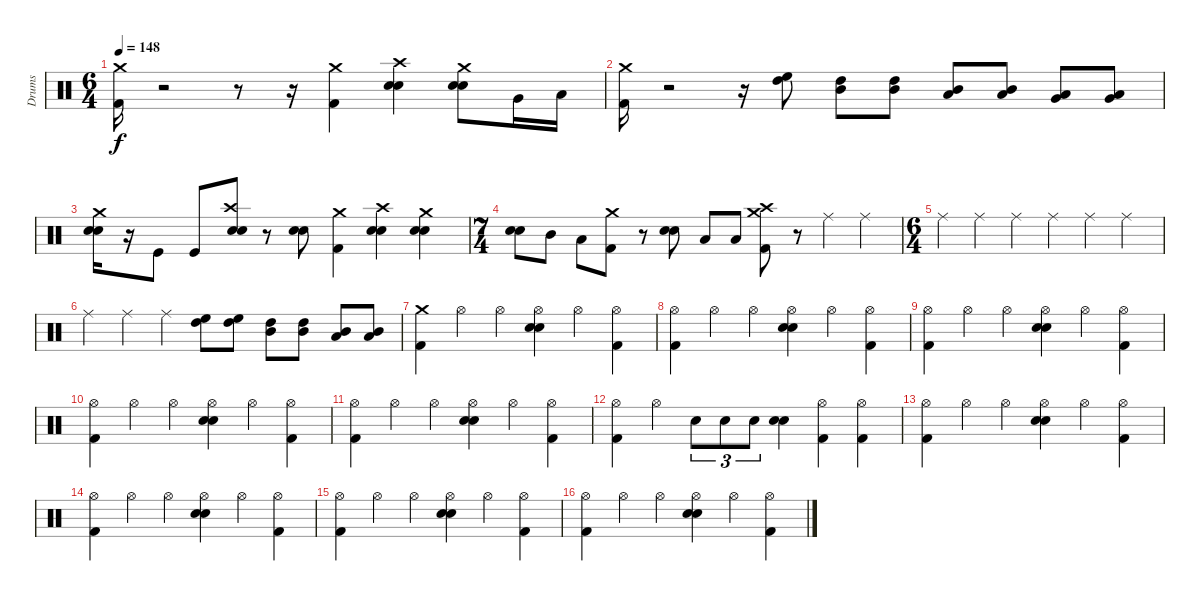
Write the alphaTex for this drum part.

\track ("Drums" "Drums") {instrument percussion}
\staff {score}
\articulation defaults
\ts (6 4)
\tempo 148
\clef neutral
\ks c
("Crash medium (hit)" "Kick (hit) 2").16{dy f} r.2 r.8 r.16 ("Crash medium (hit)" "Kick (hit) 2").4 ("Electric Snare (hit)" "Crash high (hit)" "Snare (hit) 2").4 ("Electric Snare (hit)" "Crash medium (hit)" "Snare (hit) 2").8 "Very Low Tom (hit)".16 "Low Floor Tom (hit)".16 |
("Crash medium (hit)" "Kick (hit) 2").16 r.2 r.16 ("High Tom (hit)" "High Floor Tom (hit)").8 ("Mid Tom (hit)" "High Tom (hit)").8 ("High Tom (hit)" "Mid Tom (hit)").8 ("Mid Tom (hit)" "Low Tom (hit)").8 ("Mid Tom (hit)" "Low Tom (hit)").8 ("Low Tom (hit)" "Very Low Tom (hit)").8 ("Very Low Tom (hit)" "Low Floor Tom (hit)").8 |
("Snare (hit) 2" "Crash medium (hit)" "Electric Snare (hit)").16 r.16 "Kick (hit)".8 "Kick (hit)".8 ("Crash high (hit)" "Electric Snare (hit)" "Snare (hit) 2").8 r.8 ("Electric Snare (hit)" "Snare (hit) 2").8 ("Crash medium (hit)" "Kick (hit) 2").4 ("Electric Snare (hit)" "Crash high (hit)" "Snare (hit) 2").4 ("Electric Snare (hit)" "Crash medium (hit)" "Snare (hit) 2").4 |
\ts (7 4)
("Snare (hit) 2" "Electric Snare (hit)").8 "Mid Tom (hit)".8 "Low Tom (hit)".8 ("Crash medium (hit)" "Kick (hit) 2").8 r.8 ("Snare (hit) 2" "Electric Snare (hit)").8 "Low Tom (hit)".8 "Low Floor Tom (hit)".8 ("Crash high (hit)" "Crash medium (hit)" "Kick (hit) 2").8 r.8 "Ride (middle)".4 "Ride (middle)".4 |
\ts (6 4)
"Ride (middle)".4 "Ride (middle)".4 "Ride (middle)".4 "Ride (middle)".4 "Ride (middle)".4 "Ride (middle)".4 |
"Ride (middle)".4 "Ride (middle)".4 "Ride (middle)".4 ("High Tom (hit)" "High Floor Tom (hit)").8 ("High Tom (hit)" "High Floor Tom (hit)").8 ("Mid Tom (hit)" "High Tom (hit)").8 ("Mid Tom (hit)" "High Tom (hit)").8 ("Low Tom (hit)" "Mid Tom (hit)").8 ("Low Tom (hit)" "Mid Tom (hit)").8 |
("Crash medium (hit)" "Kick (hit) 2").4 "Hi-Hat (open)".4 "Hi-Hat (open)".4 ("Hi-Hat (open)" "Electric Snare (hit)" "Snare (hit) 2").4 "Hi-Hat (open)".4 ("Kick (hit) 2" "Hi-Hat (open)").4 |
("Hi-Hat (open)" "Kick (hit) 2").4 "Hi-Hat (open)".4 "Hi-Hat (open)".4 ("Hi-Hat (open)" "Electric Snare (hit)" "Snare (hit) 2").4 "Hi-Hat (open)".4 ("Kick (hit) 2" "Hi-Hat (open)").4 |
("Kick (hit) 2" "Hi-Hat (open)").4 "Hi-Hat (open)".4 "Hi-Hat (open)".4 ("Snare (hit) 2" "Electric Snare (hit)" "Hi-Hat (open)").4 "Hi-Hat (open)".4 ("Kick (hit) 2" "Hi-Hat (open)").4 |
("Kick (hit) 2" "Hi-Hat (open)").4 "Hi-Hat (open)".4 "Hi-Hat (open)".4 ("Snare (hit) 2" "Electric Snare (hit)" "Hi-Hat (open)").4 "Hi-Hat (open)".4 ("Kick (hit) 2" "Hi-Hat (open)").4 |
("Hi-Hat (open)" "Kick (hit) 2").4 "Hi-Hat (open)".4 "Hi-Hat (open)".4 ("Hi-Hat (open)" "Snare (hit) 2" "Electric Snare (hit)").4 "Hi-Hat (open)".4 ("Hi-Hat (open)" "Kick (hit) 2").4 |
("Kick (hit) 2" "Hi-Hat (open)").4 "Hi-Hat (open)".4 "Snare (hit) 2".8{tu (3 2)} "Snare (hit) 2".8{tu (3 2)} "Snare (hit) 2".8{tu (3 2)} ("Snare (hit) 2" "Electric Snare (hit)").4 ("Kick (hit) 2" "Hi-Hat (open)").4 ("Kick (hit) 2" "Hi-Hat (open)").4 |
("Hi-Hat (open)" "Kick (hit) 2").4 "Hi-Hat (open)".4 "Hi-Hat (open)".4 ("Hi-Hat (open)" "Snare (hit) 2" "Electric Snare (hit)").4 "Hi-Hat (open)".4 ("Hi-Hat (open)" "Kick (hit) 2").4 |
("Kick (hit) 2" "Hi-Hat (open)").4 "Hi-Hat (open)".4 "Hi-Hat (open)".4 ("Snare (hit) 2" "Electric Snare (hit)" "Hi-Hat (open)").4 "Hi-Hat (open)".4 ("Kick (hit) 2" "Hi-Hat (open)").4 |
("Kick (hit) 2" "Hi-Hat (open)").4 "Hi-Hat (open)".4 "Hi-Hat (open)".4 ("Electric Snare (hit)" "Snare (hit) 2" "Hi-Hat (open)").4 "Hi-Hat (open)".4 ("Kick (hit) 2" "Hi-Hat (open)").4 |
("Kick (hit) 2" "Hi-Hat (open)").4 "Hi-Hat (open)".4 "Hi-Hat (open)".4 ("Hi-Hat (open)" "Snare (hit) 2" "Electric Snare (hit)").4 "Hi-Hat (open)".4 ("Kick (hit) 2" "Hi-Hat (open)").4
